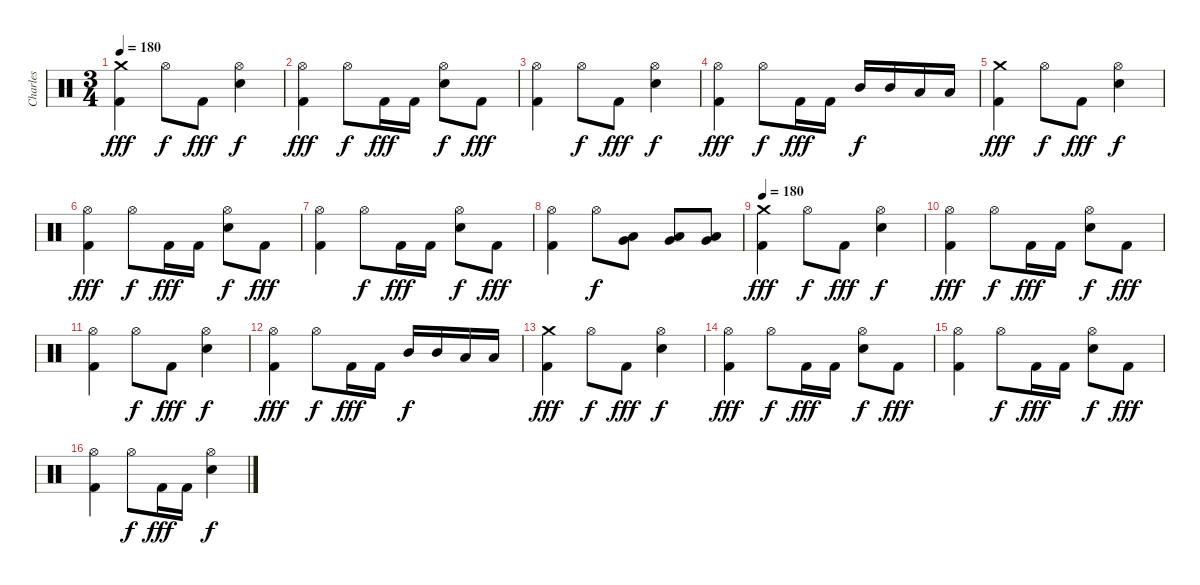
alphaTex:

\track ("Charles" "Charles") {instrument percussion}
\staff {score}
\articulation defaults
\ts (3 4)
\tempo 180
\clef neutral
\ks c
("Crash medium (hit)" "Kick (hit) 2").4{dy fff} "Hi-Hat (open)".8{dy f} "Kick (hit) 2".8{dy fff} ("Hi-Hat (open)" "Electric Snare (hit)").4{dy f} |
("Hi-Hat (open)" "Kick (hit) 2").4{dy fff} "Hi-Hat (open)".8{dy f} "Kick (hit) 2".16{dy fff} "Kick (hit) 2".16 ("Hi-Hat (open)" "Electric Snare (hit)").8{dy f} "Kick (hit) 2".8{dy fff} |
("Hi-Hat (open)" "Kick (hit) 2").4 "Hi-Hat (open)".8{dy f} "Kick (hit) 2".8{dy fff} ("Hi-Hat (open)" "Electric Snare (hit)").4{dy f} |
("Hi-Hat (open)" "Kick (hit) 2").4{dy fff} "Hi-Hat (open)".8{dy f} "Kick (hit) 2".16{dy fff} "Kick (hit) 2".16 "Mid Tom (hit)".16{dy f} "Mid Tom (hit)".16 "Low Tom (hit)".16 "Low Tom (hit)".16 |
("Crash medium (hit)" "Kick (hit) 2").4{dy fff} "Hi-Hat (open)".8{dy f} "Kick (hit) 2".8{dy fff} ("Hi-Hat (open)" "Electric Snare (hit)").4{dy f} |
("Hi-Hat (open)" "Kick (hit) 2").4{dy fff} "Hi-Hat (open)".8{dy f} "Kick (hit) 2".16{dy fff} "Kick (hit) 2".16 ("Hi-Hat (open)" "Electric Snare (hit)").8{dy f} "Kick (hit) 2".8{dy fff} |
("Hi-Hat (open)" "Kick (hit) 2").4 "Hi-Hat (open)".8{dy f} "Kick (hit) 2".16{dy fff} "Kick (hit) 2".16 ("Hi-Hat (open)" "Electric Snare (hit)").8{dy f} "Kick (hit) 2".8{dy fff} |
("Hi-Hat (open)" "Kick (hit) 2").4 "Hi-Hat (open)".8{dy f} ("Low Tom (hit)" "Very Low Tom (hit)").8 ("Low Tom (hit)" "Very Low Tom (hit)").8 ("Low Tom (hit)" "Very Low Tom (hit)").8 |
\tempo 180
("Crash medium (hit)" "Kick (hit) 2").4{dy fff} "Hi-Hat (open)".8{dy f} "Kick (hit) 2".8{dy fff} ("Hi-Hat (open)" "Electric Snare (hit)").4{dy f} |
("Hi-Hat (open)" "Kick (hit) 2").4{dy fff} "Hi-Hat (open)".8{dy f} "Kick (hit) 2".16{dy fff} "Kick (hit) 2".16 ("Hi-Hat (open)" "Electric Snare (hit)").8{dy f} "Kick (hit) 2".8{dy fff} |
("Hi-Hat (open)" "Kick (hit) 2").4 "Hi-Hat (open)".8{dy f} "Kick (hit) 2".8{dy fff} ("Hi-Hat (open)" "Electric Snare (hit)").4{dy f} |
("Hi-Hat (open)" "Kick (hit) 2").4{dy fff} "Hi-Hat (open)".8{dy f} "Kick (hit) 2".16{dy fff} "Kick (hit) 2".16 "Mid Tom (hit)".16{dy f} "Mid Tom (hit)".16 "Low Tom (hit)".16 "Low Tom (hit)".16 |
("Crash medium (hit)" "Kick (hit) 2").4{dy fff} "Hi-Hat (open)".8{dy f} "Kick (hit) 2".8{dy fff} ("Hi-Hat (open)" "Electric Snare (hit)").4{dy f} |
("Hi-Hat (open)" "Kick (hit) 2").4{dy fff} "Hi-Hat (open)".8{dy f} "Kick (hit) 2".16{dy fff} "Kick (hit) 2".16 ("Hi-Hat (open)" "Electric Snare (hit)").8{dy f} "Kick (hit) 2".8{dy fff} |
("Hi-Hat (open)" "Kick (hit) 2").4 "Hi-Hat (open)".8{dy f} "Kick (hit) 2".16{dy fff} "Kick (hit) 2".16 ("Hi-Hat (open)" "Electric Snare (hit)").8{dy f} "Kick (hit) 2".8{dy fff} |
("Hi-Hat (open)" "Kick (hit) 2").4 "Hi-Hat (open)".8{dy f} "Kick (hit) 2".16{dy fff} "Kick (hit) 2".16 ("Hi-Hat (open)" "Electric Snare (hit)").4{dy f}
